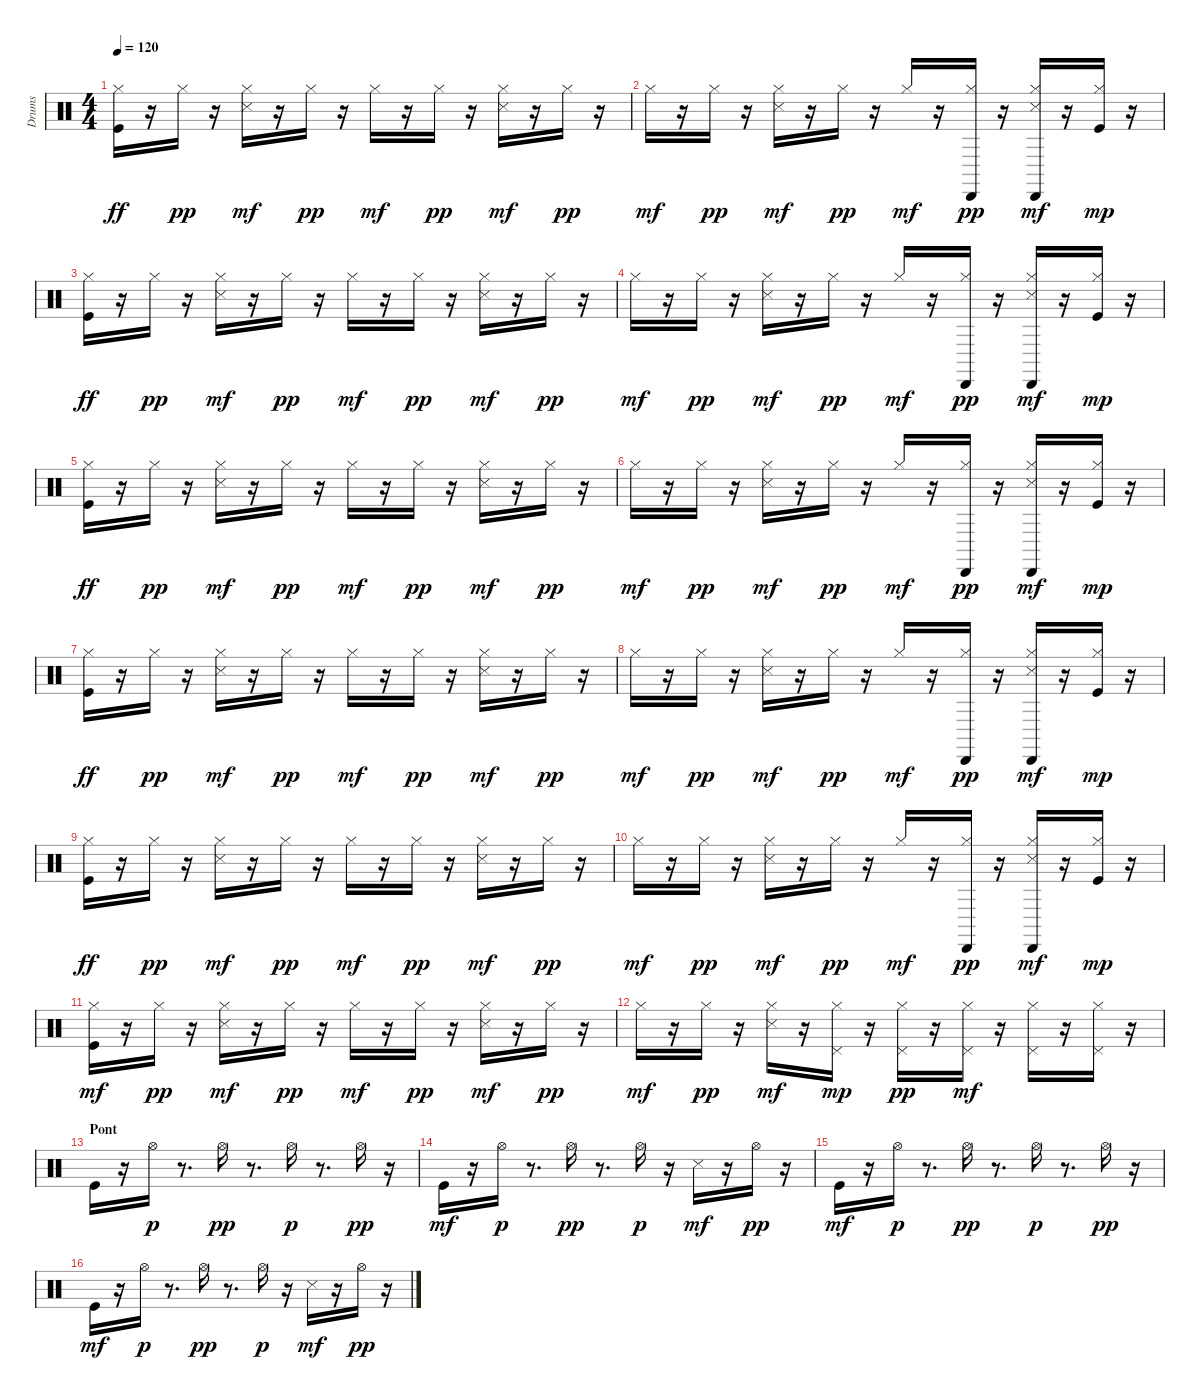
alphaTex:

\track ("Drums" "Drums") {instrument percussion}
\staff {score}
\articulation defaults
\ts (4 4)
\tempo 120
\clef neutral
\ks c
("Hi-Hat (closed)" "Kick (hit)").16{dy ff} r.16 "Hi-Hat (closed)".16{dy pp} r.16 ("Snare (side stick) 3" "Hi-Hat (closed)").16{dy mf} r.16 "Hi-Hat (closed)".16{dy pp} r.16 "Hi-Hat (closed)".16{dy mf} r.16 "Hi-Hat (closed)".16{dy pp} r.16 ("Snare (side stick) 3" "Hi-Hat (closed)").16{dy mf} r.16 "Hi-Hat (closed)".16{dy pp} r.16 |
"Hi-Hat (closed)".16{dy mf} r.16 "Hi-Hat (closed)".16{dy pp} r.16 ("Snare (side stick) 3" "Hi-Hat (closed)").16{dy mf} r.16 "Hi-Hat (closed)".16{dy pp} r.16 "Hi-Hat (closed)".16{dy mf} r.16 ("Cabasa (hit)" "Hi-Hat (closed)").16{dy pp} r.16 ("Cabasa (hit)" "Snare (side stick) 3" "Hi-Hat (closed)").16{dy mf} r.16 ("Hi-Hat (closed)" "Kick (hit)").16{dy mp} r.16 |
("Hi-Hat (closed)" "Kick (hit)").16{dy ff} r.16 "Hi-Hat (closed)".16{dy pp} r.16 ("Snare (side stick) 3" "Hi-Hat (closed)").16{dy mf} r.16 "Hi-Hat (closed)".16{dy pp} r.16 "Hi-Hat (closed)".16{dy mf} r.16 "Hi-Hat (closed)".16{dy pp} r.16 ("Snare (side stick) 3" "Hi-Hat (closed)").16{dy mf} r.16 "Hi-Hat (closed)".16{dy pp} r.16 |
"Hi-Hat (closed)".16{dy mf} r.16 "Hi-Hat (closed)".16{dy pp} r.16 ("Snare (side stick) 3" "Hi-Hat (closed)").16{dy mf} r.16 "Hi-Hat (closed)".16{dy pp} r.16 "Hi-Hat (closed)".16{dy mf} r.16 ("Cabasa (hit)" "Hi-Hat (closed)").16{dy pp} r.16 ("Cabasa (hit)" "Snare (side stick) 3" "Hi-Hat (closed)").16{dy mf} r.16 ("Hi-Hat (closed)" "Kick (hit)").16{dy mp} r.16 |
("Hi-Hat (closed)" "Kick (hit)").16{dy ff} r.16 "Hi-Hat (closed)".16{dy pp} r.16 ("Snare (side stick) 3" "Hi-Hat (closed)").16{dy mf} r.16 "Hi-Hat (closed)".16{dy pp} r.16 "Hi-Hat (closed)".16{dy mf} r.16 "Hi-Hat (closed)".16{dy pp} r.16 ("Snare (side stick) 3" "Hi-Hat (closed)").16{dy mf} r.16 "Hi-Hat (closed)".16{dy pp} r.16 |
"Hi-Hat (closed)".16{dy mf} r.16 "Hi-Hat (closed)".16{dy pp} r.16 ("Snare (side stick) 3" "Hi-Hat (closed)").16{dy mf} r.16 "Hi-Hat (closed)".16{dy pp} r.16 "Hi-Hat (closed)".16{dy mf} r.16 ("Cabasa (hit)" "Hi-Hat (closed)").16{dy pp} r.16 ("Cabasa (hit)" "Snare (side stick) 3" "Hi-Hat (closed)").16{dy mf} r.16 ("Hi-Hat (closed)" "Kick (hit)").16{dy mp} r.16 |
("Hi-Hat (closed)" "Kick (hit)").16{dy ff} r.16 "Hi-Hat (closed)".16{dy pp} r.16 ("Snare (side stick) 3" "Hi-Hat (closed)").16{dy mf} r.16 "Hi-Hat (closed)".16{dy pp} r.16 "Hi-Hat (closed)".16{dy mf} r.16 "Hi-Hat (closed)".16{dy pp} r.16 ("Snare (side stick) 3" "Hi-Hat (closed)").16{dy mf} r.16 "Hi-Hat (closed)".16{dy pp} r.16 |
"Hi-Hat (closed)".16{dy mf} r.16 "Hi-Hat (closed)".16{dy pp} r.16 ("Snare (side stick) 3" "Hi-Hat (closed)").16{dy mf} r.16 "Hi-Hat (closed)".16{dy pp} r.16 "Hi-Hat (closed)".16{dy mf} r.16 ("Cabasa (hit)" "Hi-Hat (closed)").16{dy pp} r.16 ("Cabasa (hit)" "Snare (side stick) 3" "Hi-Hat (closed)").16{dy mf} r.16 ("Hi-Hat (closed)" "Kick (hit)").16{dy mp} r.16 |
("Hi-Hat (closed)" "Kick (hit)").16{dy ff} r.16 "Hi-Hat (closed)".16{dy pp} r.16 ("Snare (side stick) 3" "Hi-Hat (closed)").16{dy mf} r.16 "Hi-Hat (closed)".16{dy pp} r.16 "Hi-Hat (closed)".16{dy mf} r.16 "Hi-Hat (closed)".16{dy pp} r.16 ("Snare (side stick) 3" "Hi-Hat (closed)").16{dy mf} r.16 "Hi-Hat (closed)".16{dy pp} r.16 |
"Hi-Hat (closed)".16{dy mf} r.16 "Hi-Hat (closed)".16{dy pp} r.16 ("Snare (side stick) 3" "Hi-Hat (closed)").16{dy mf} r.16 "Hi-Hat (closed)".16{dy pp} r.16 "Hi-Hat (closed)".16{dy mf} r.16 ("Cabasa (hit)" "Hi-Hat (closed)").16{dy pp} r.16 ("Cabasa (hit)" "Snare (side stick) 3" "Hi-Hat (closed)").16{dy mf} r.16 ("Hi-Hat (closed)" "Kick (hit)").16{dy mp} r.16 |
("Hi-Hat (closed)" "Kick (hit)").16{dy mf} r.16 "Hi-Hat (closed)".16{dy pp} r.16 ("Snare (side stick) 3" "Hi-Hat (closed)").16{dy mf} r.16 "Hi-Hat (closed)".16{dy pp} r.16 "Hi-Hat (closed)".16{dy mf} r.16 "Hi-Hat (closed)".16{dy pp} r.16 ("Snare (side stick) 3" "Hi-Hat (closed)").16{dy mf} r.16 "Hi-Hat (closed)".16{dy pp} r.16 |
"Hi-Hat (closed)".16{dy mf} r.16 "Hi-Hat (closed)".16{dy pp} r.16 ("Snare (side stick) 3" "Hi-Hat (closed)").16{dy mf} r.16 ("Pedal Hi-Hat (hit)" "Hi-Hat (closed)").16{dy mp} r.16 ("Pedal Hi-Hat (hit)" "Hi-Hat (closed)").16{dy pp} r.16 ("Pedal Hi-Hat (hit)" "Hi-Hat (closed)").16{dy mf} r.16 ("Pedal Hi-Hat (hit)" "Hi-Hat (closed)").16 r.16 ("Pedal Hi-Hat (hit)" "Hi-Hat (closed)").16 r.16 |
\section ("" "Pont")
"Kick (hit)".16 r.16 "Hi-Hat (open)".16{dy p} r.8{d} "Hi-Hat (open)".16{dy pp} r.8{d} "Hi-Hat (open)".16{dy p} r.8{d} "Hi-Hat (open)".16{dy pp} r.16 |
"Kick (hit)".16{dy mf} r.16 "Hi-Hat (open)".16{dy p} r.8{d} "Hi-Hat (open)".16{dy pp} r.8{d} "Hi-Hat (open)".16{dy p} r.16 "Snare (side stick) 3".16{dy mf} r.16 "Hi-Hat (open)".16{dy pp} r.16 |
"Kick (hit)".16{dy mf} r.16 "Hi-Hat (open)".16{dy p} r.8{d} "Hi-Hat (open)".16{dy pp} r.8{d} "Hi-Hat (open)".16{dy p} r.8{d} "Hi-Hat (open)".16{dy pp} r.16 |
"Kick (hit)".16{dy mf} r.16 "Hi-Hat (open)".16{dy p} r.8{d} "Hi-Hat (open)".16{dy pp} r.8{d} "Hi-Hat (open)".16{dy p} r.16 "Snare (side stick) 3".16{dy mf} r.16 "Hi-Hat (open)".16{dy pp} r.16
